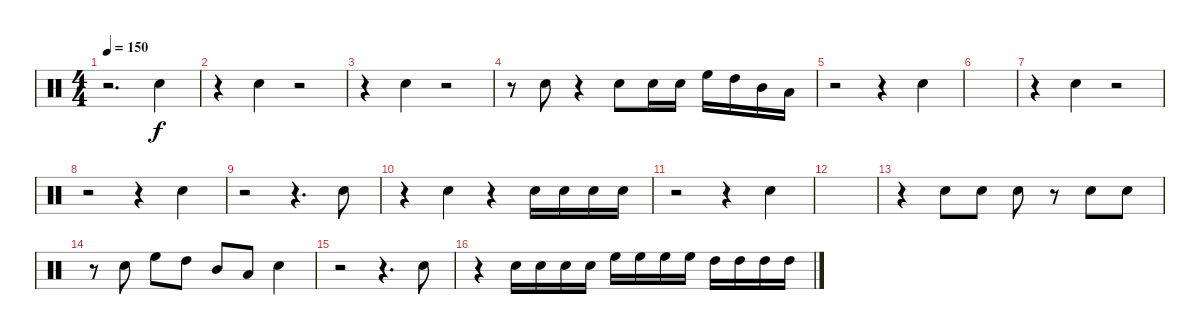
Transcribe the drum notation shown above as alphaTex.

\track "" {instrument percussion}
\staff {score}
\articulation defaults
\ts (4 4)
\tempo 150
\clef neutral
\ks c
r.2{d dy f} "Electric Snare (hit)".4 |
r.4 "Electric Snare (hit)".4 r.2 |
r.4 "Electric Snare (hit)".4 r.2 |
r.8 "Electric Snare (hit)".8 r.4 "Electric Snare (hit)".8 "Electric Snare (hit)".16 "Electric Snare (hit)".16 "High Floor Tom (hit)".16 "High Tom (hit)".16 "Mid Tom (hit)".16 "Low Tom (hit)".16 |
r.2 r.4 "Electric Snare (hit)".4 |
|
r.4 "Electric Snare (hit)".4 r.2 |
r.2 r.4 "Electric Snare (hit)".4 |
r.2 r.4{d} "Electric Snare (hit)".8 |
r.4 "Electric Snare (hit)".4 r.4 "Electric Snare (hit)".16 "Electric Snare (hit)".16 "Electric Snare (hit)".16 "Electric Snare (hit)".16 |
r.2 r.4 "Electric Snare (hit)".4 |
|
r.4 "Electric Snare (hit)".8 "Electric Snare (hit)".8 "Electric Snare (hit)".8 r.8 "Electric Snare (hit)".8 "Electric Snare (hit)".8 |
r.8 "Electric Snare (hit)".8 "High Floor Tom (hit)".8 "High Tom (hit)".8 "Mid Tom (hit)".8 "Low Tom (hit)".8 "Electric Snare (hit)".4 |
r.2 r.4{d} "Electric Snare (hit)".8 |
r.4 "Electric Snare (hit)".16 "Electric Snare (hit)".16 "Electric Snare (hit)".16 "Electric Snare (hit)".16 "High Floor Tom (hit)".16 "High Floor Tom (hit)".16 "High Floor Tom (hit)".16 "High Floor Tom (hit)".16 "High Tom (hit)".16 "High Tom (hit)".16 "High Tom (hit)".16 "High Tom (hit)".16
